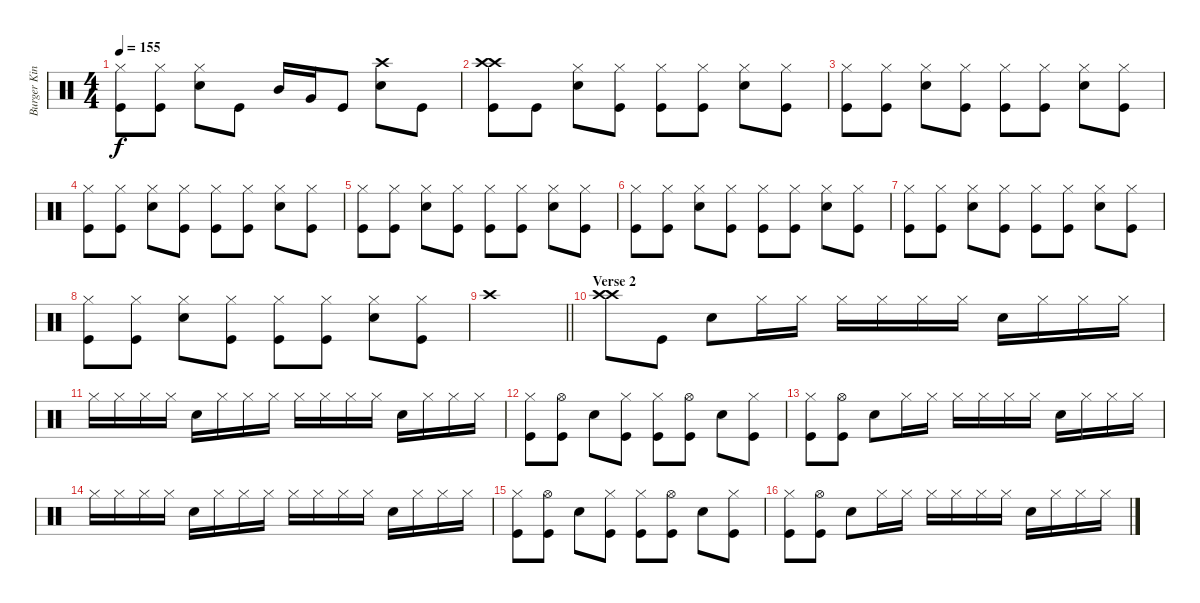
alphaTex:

\track ("Burger King" "Burger Kin") {instrument percussion}
\staff {score}
\articulation defaults
\ts (4 4)
\tempo 155
\clef neutral
\ks c
("Kick (hit)" "Hi-Hat (closed)").8{dy f} ("Kick (hit)" "Hi-Hat (closed)").8 ("Snare (hit) 2" "Hi-Hat (closed)").8 "Kick (hit)".8 "Mid Tom (hit)".16 "Very Low Tom (hit)".16 "Kick (hit)".8 ("Crash high (hit)" "Snare (hit) 2").8 "Kick (hit)".8 |
("Crash high (hit)" "Crash high (hit)" "Kick (hit)").8 "Kick (hit)".8 ("Snare (hit) 2" "Hi-Hat (closed)").8 ("Kick (hit)" "Hi-Hat (closed)").8 ("Kick (hit)" "Hi-Hat (closed)").8 ("Kick (hit)" "Hi-Hat (closed)").8 ("Snare (hit) 2" "Hi-Hat (closed)").8 ("Hi-Hat (closed)" "Kick (hit)").8 |
("Kick (hit)" "Hi-Hat (closed)").8 ("Kick (hit)" "Hi-Hat (closed)").8 ("Snare (hit) 2" "Hi-Hat (closed)").8 ("Kick (hit)" "Hi-Hat (closed)").8 ("Kick (hit)" "Hi-Hat (closed)").8 ("Kick (hit)" "Hi-Hat (closed)").8 ("Snare (hit) 2" "Hi-Hat (closed)").8 ("Kick (hit)" "Hi-Hat (closed)").8 |
("Kick (hit)" "Hi-Hat (closed)").8 ("Kick (hit)" "Hi-Hat (closed)").8 ("Snare (hit) 2" "Hi-Hat (closed)").8 ("Kick (hit)" "Hi-Hat (closed)").8 ("Kick (hit)" "Hi-Hat (closed)").8 ("Kick (hit)" "Hi-Hat (closed)").8 ("Snare (hit) 2" "Hi-Hat (closed)").8 ("Kick (hit)" "Hi-Hat (closed)").8 |
("Kick (hit)" "Hi-Hat (closed)").8 ("Kick (hit)" "Hi-Hat (closed)").8 ("Snare (hit) 2" "Hi-Hat (closed)").8 ("Kick (hit)" "Hi-Hat (closed)").8 ("Kick (hit)" "Hi-Hat (closed)").8 ("Kick (hit)" "Hi-Hat (closed)").8 ("Snare (hit) 2" "Hi-Hat (closed)").8 ("Kick (hit)" "Hi-Hat (closed)").8 |
("Kick (hit)" "Hi-Hat (closed)").8 ("Kick (hit)" "Hi-Hat (closed)").8 ("Snare (hit) 2" "Hi-Hat (closed)").8 ("Kick (hit)" "Hi-Hat (closed)").8 ("Kick (hit)" "Hi-Hat (closed)").8 ("Kick (hit)" "Hi-Hat (closed)").8 ("Snare (hit) 2" "Hi-Hat (closed)").8 ("Kick (hit)" "Hi-Hat (closed)").8 |
("Kick (hit)" "Hi-Hat (closed)").8 ("Kick (hit)" "Hi-Hat (closed)").8 ("Snare (hit) 2" "Hi-Hat (closed)").8 ("Kick (hit)" "Hi-Hat (closed)").8 ("Kick (hit)" "Hi-Hat (closed)").8 ("Kick (hit)" "Hi-Hat (closed)").8 ("Snare (hit) 2" "Hi-Hat (closed)").8 ("Kick (hit)" "Hi-Hat (closed)").8 |
("Kick (hit)" "Hi-Hat (closed)").8 ("Kick (hit)" "Hi-Hat (closed)").8 ("Snare (hit) 2" "Hi-Hat (closed)").8 ("Kick (hit)" "Hi-Hat (closed)").8 ("Kick (hit)" "Hi-Hat (closed)").8 ("Kick (hit)" "Hi-Hat (closed)").8 ("Snare (hit) 2" "Hi-Hat (closed)").8 ("Kick (hit)" "Hi-Hat (closed)").8 |
\barLineRight lightlight "Crash high (hit)".1
|
\section ("" "Verse 2")
("Crash high (hit)" "Crash high (hit)").8 "Kick (hit)".8 "Snare (hit) 2".8 "Hi-Hat (closed)".16 "Hi-Hat (closed)".16 "Hi-Hat (closed)".16 "Hi-Hat (closed)".16 "Hi-Hat (closed)".16 "Hi-Hat (closed)".16 "Snare (hit) 2".16 "Hi-Hat (closed)".16 "Hi-Hat (closed)".16 "Hi-Hat (closed)".16 |
"Hi-Hat (closed)".16 "Hi-Hat (closed)".16 "Hi-Hat (closed)".16 "Hi-Hat (closed)".16 "Snare (hit) 2".16 "Hi-Hat (closed)".16 "Hi-Hat (closed)".16 "Hi-Hat (closed)".16 "Hi-Hat (closed)".16 "Hi-Hat (closed)".16 "Hi-Hat (closed)".16 "Hi-Hat (closed)".16 "Snare (hit) 2".16 "Hi-Hat (closed)".16 "Hi-Hat (closed)".16 "Hi-Hat (closed)".16 |
("Kick (hit)" "Hi-Hat (closed)").8 ("Kick (hit)" "Hi-Hat (open)").8 "Snare (hit) 2".8 ("Kick (hit)" "Hi-Hat (closed)").8 ("Kick (hit)" "Hi-Hat (closed)").8 ("Kick (hit)" "Hi-Hat (open)").8 "Snare (hit) 2".8 ("Hi-Hat (closed)" "Kick (hit)").8 |
("Kick (hit)" "Hi-Hat (closed)").8 ("Kick (hit)" "Hi-Hat (open)").8 "Snare (hit) 2".8 "Hi-Hat (closed)".16 "Hi-Hat (closed)".16 "Hi-Hat (closed)".16 "Hi-Hat (closed)".16 "Hi-Hat (closed)".16 "Hi-Hat (closed)".16 "Snare (hit) 2".16 "Hi-Hat (closed)".16 "Hi-Hat (closed)".16 "Hi-Hat (closed)".16 |
"Hi-Hat (closed)".16 "Hi-Hat (closed)".16 "Hi-Hat (closed)".16 "Hi-Hat (closed)".16 "Snare (hit) 2".16 "Hi-Hat (closed)".16 "Hi-Hat (closed)".16 "Hi-Hat (closed)".16 "Hi-Hat (closed)".16 "Hi-Hat (closed)".16 "Hi-Hat (closed)".16 "Hi-Hat (closed)".16 "Snare (hit) 2".16 "Hi-Hat (closed)".16 "Hi-Hat (closed)".16 "Hi-Hat (closed)".16 |
("Kick (hit)" "Hi-Hat (closed)").8 ("Kick (hit)" "Hi-Hat (open)").8 "Snare (hit) 2".8 ("Kick (hit)" "Hi-Hat (closed)").8 ("Kick (hit)" "Hi-Hat (closed)").8 ("Kick (hit)" "Hi-Hat (open)").8 "Snare (hit) 2".8 ("Hi-Hat (closed)" "Kick (hit)").8 |
("Kick (hit)" "Hi-Hat (closed)").8 ("Kick (hit)" "Hi-Hat (open)").8 "Snare (hit) 2".8 "Hi-Hat (closed)".16 "Hi-Hat (closed)".16 "Hi-Hat (closed)".16 "Hi-Hat (closed)".16 "Hi-Hat (closed)".16 "Hi-Hat (closed)".16 "Snare (hit) 2".16 "Hi-Hat (closed)".16 "Hi-Hat (closed)".16 "Hi-Hat (closed)".16
